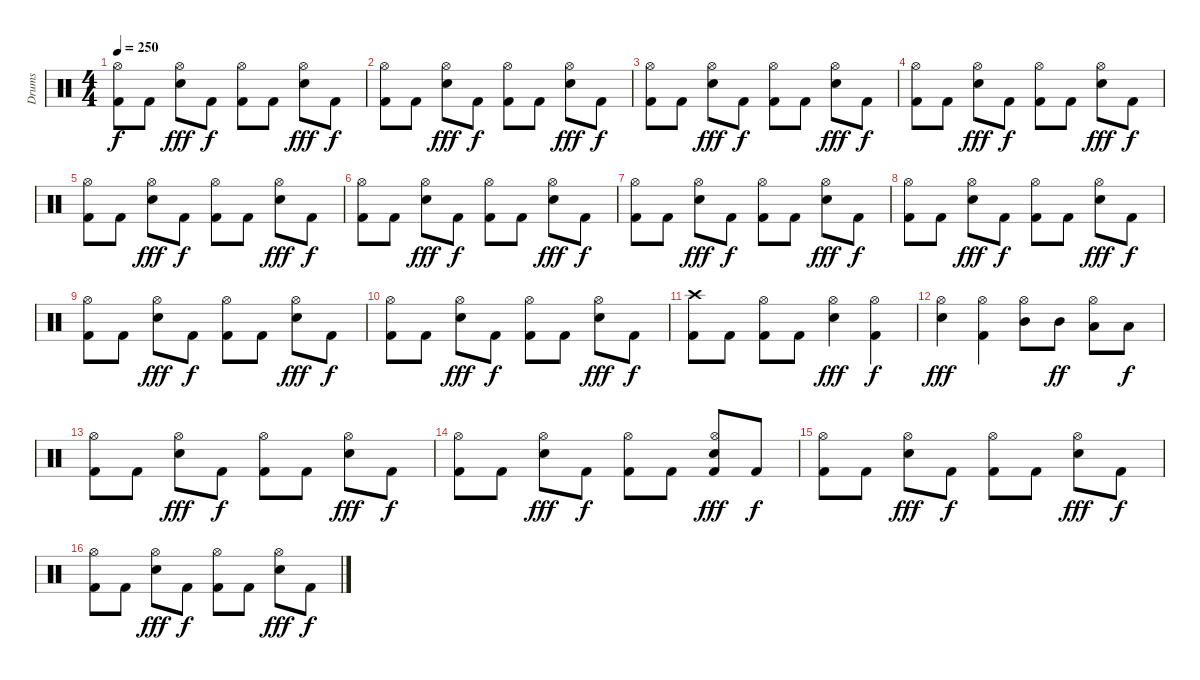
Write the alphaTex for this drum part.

\track ("Drums" "Drums") {instrument percussion}
\staff {score}
\articulation defaults
\ts (4 4)
\tempo 250
\clef neutral
\ks c
("Kick (hit) 2" "Hi-Hat (open)").8{dy f} "Kick (hit) 2".8 ("Hi-Hat (open)" "Snare (hit) 2").8{dy fff} "Kick (hit) 2".8{dy f} ("Hi-Hat (open)" "Kick (hit) 2").8 "Kick (hit) 2".8 ("Hi-Hat (open)" "Snare (hit) 2").8{dy fff} "Kick (hit) 2".8{dy f} |
("Kick (hit) 2" "Hi-Hat (open)").8 "Kick (hit) 2".8 ("Hi-Hat (open)" "Snare (hit) 2").8{dy fff} "Kick (hit) 2".8{dy f} ("Hi-Hat (open)" "Kick (hit) 2").8 "Kick (hit) 2".8 ("Hi-Hat (open)" "Snare (hit) 2").8{dy fff} "Kick (hit) 2".8{dy f} |
("Kick (hit) 2" "Hi-Hat (open)").8 "Kick (hit) 2".8 ("Hi-Hat (open)" "Snare (hit) 2").8{dy fff} "Kick (hit) 2".8{dy f} ("Hi-Hat (open)" "Kick (hit) 2").8 "Kick (hit) 2".8 ("Hi-Hat (open)" "Snare (hit) 2").8{dy fff} "Kick (hit) 2".8{dy f} |
("Kick (hit) 2" "Hi-Hat (open)").8 "Kick (hit) 2".8 ("Hi-Hat (open)" "Snare (hit) 2").8{dy fff} "Kick (hit) 2".8{dy f} ("Hi-Hat (open)" "Kick (hit) 2").8 "Kick (hit) 2".8 ("Hi-Hat (open)" "Snare (hit) 2").8{dy fff} "Kick (hit) 2".8{dy f} |
("Kick (hit) 2" "Hi-Hat (open)").8 "Kick (hit) 2".8 ("Hi-Hat (open)" "Snare (hit) 2").8{dy fff} "Kick (hit) 2".8{dy f} ("Hi-Hat (open)" "Kick (hit) 2").8 "Kick (hit) 2".8 ("Hi-Hat (open)" "Snare (hit) 2").8{dy fff} "Kick (hit) 2".8{dy f} |
("Kick (hit) 2" "Hi-Hat (open)").8 "Kick (hit) 2".8 ("Hi-Hat (open)" "Snare (hit) 2").8{dy fff} "Kick (hit) 2".8{dy f} ("Hi-Hat (open)" "Kick (hit) 2").8 "Kick (hit) 2".8 ("Hi-Hat (open)" "Snare (hit) 2").8{dy fff} "Kick (hit) 2".8{dy f} |
("Kick (hit) 2" "Hi-Hat (open)").8 "Kick (hit) 2".8 ("Hi-Hat (open)" "Snare (hit) 2").8{dy fff} "Kick (hit) 2".8{dy f} ("Hi-Hat (open)" "Kick (hit) 2").8 "Kick (hit) 2".8 ("Hi-Hat (open)" "Snare (hit) 2").8{dy fff} "Kick (hit) 2".8{dy f} |
("Kick (hit) 2" "Hi-Hat (open)").8 "Kick (hit) 2".8 ("Hi-Hat (open)" "Snare (hit) 2").8{dy fff} "Kick (hit) 2".8{dy f} ("Hi-Hat (open)" "Kick (hit) 2").8 "Kick (hit) 2".8 ("Hi-Hat (open)" "Snare (hit) 2").8{dy fff} "Kick (hit) 2".8{dy f} |
("Kick (hit) 2" "Hi-Hat (open)").8 "Kick (hit) 2".8 ("Hi-Hat (open)" "Snare (hit) 2").8{dy fff} "Kick (hit) 2".8{dy f} ("Hi-Hat (open)" "Kick (hit) 2").8 "Kick (hit) 2".8 ("Hi-Hat (open)" "Snare (hit) 2").8{dy fff} "Kick (hit) 2".8{dy f} |
("Kick (hit) 2" "Hi-Hat (open)").8 "Kick (hit) 2".8 ("Hi-Hat (open)" "Snare (hit) 2").8{dy fff} "Kick (hit) 2".8{dy f} ("Hi-Hat (open)" "Kick (hit) 2").8 "Kick (hit) 2".8 ("Hi-Hat (open)" "Snare (hit) 2").8{dy fff} "Kick (hit) 2".8{dy f} |
("Kick (hit) 2" "Crash high (hit)").8 "Kick (hit) 2".8 ("Kick (hit) 2" "Hi-Hat (open)").8 "Kick (hit) 2".8 ("Snare (hit) 2" "Hi-Hat (open)").4{dy fff} ("Kick (hit) 2" "Hi-Hat (open)").4{dy f} |
("Hi-Hat (open)" "Snare (hit) 2").4{dy fff} ("Hi-Hat (open)" "Kick (hit) 2").4 ("Hi-Hat (open)" "Mid Tom (hit)").8 "Mid Tom (hit)".8{dy ff} ("Hi-Hat (open)" "Low Tom (hit)").8 "Low Tom (hit)".8{dy f} |
("Kick (hit) 2" "Hi-Hat (open)").8 "Kick (hit) 2".8 ("Hi-Hat (open)" "Snare (hit) 2").8{dy fff} "Kick (hit) 2".8{dy f} ("Hi-Hat (open)" "Kick (hit) 2").8 "Kick (hit) 2".8 ("Hi-Hat (open)" "Snare (hit) 2").8{dy fff} "Kick (hit) 2".8{dy f} |
("Hi-Hat (open)" "Kick (hit) 2").8 "Kick (hit) 2".8 ("Hi-Hat (open)" "Snare (hit) 2").8{dy fff} "Kick (hit) 2".8{dy f} ("Hi-Hat (open)" "Kick (hit) 2").8 "Kick (hit) 2".8 ("Hi-Hat (open)" "Kick (hit) 2" "Snare (hit) 2").8{dy fff} "Kick (hit) 2".8{dy f} |
("Kick (hit) 2" "Hi-Hat (open)").8 "Kick (hit) 2".8 ("Hi-Hat (open)" "Snare (hit) 2").8{dy fff} "Kick (hit) 2".8{dy f} ("Hi-Hat (open)" "Kick (hit) 2").8 "Kick (hit) 2".8 ("Hi-Hat (open)" "Snare (hit) 2").8{dy fff} "Kick (hit) 2".8{dy f} |
("Kick (hit) 2" "Hi-Hat (open)").8 "Kick (hit) 2".8 ("Hi-Hat (open)" "Snare (hit) 2").8{dy fff} "Kick (hit) 2".8{dy f} ("Hi-Hat (open)" "Kick (hit) 2").8 "Kick (hit) 2".8 ("Hi-Hat (open)" "Snare (hit) 2").8{dy fff} "Kick (hit) 2".8{dy f}
